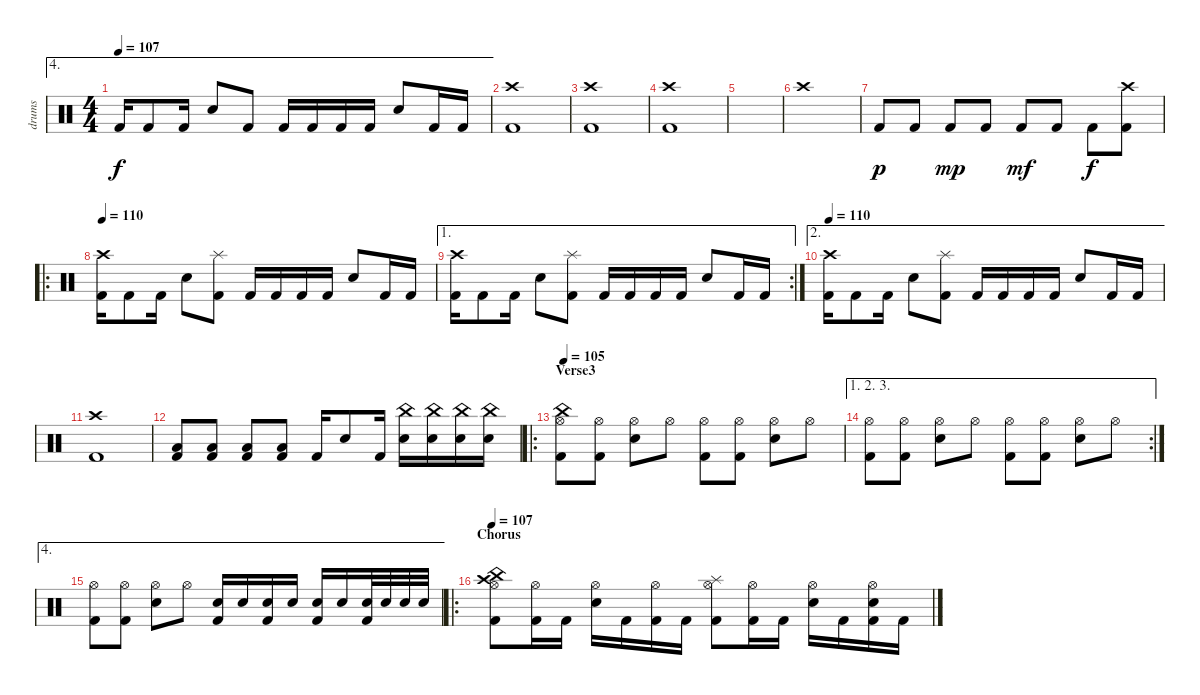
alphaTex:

\track ("drums" "drums") {instrument percussion}
\staff {score}
\articulation defaults
\ae 4
\ts (4 4)
\tempo 107
\clef neutral
\ks c "Kick (hit) 2".16{dy f} "Kick (hit) 2".8 "Kick (hit) 2".16 "Electric Snare (hit)".8 "Kick (hit) 2".8 "Kick (hit) 2".16 "Kick (hit) 2".16 "Kick (hit) 2".16 "Kick (hit) 2".16 "Electric Snare (hit)".8 "Kick (hit) 2".16 "Kick (hit) 2".16
|
("Crash high (hit)" "Kick (hit) 2").1 |
("Crash high (hit)" "Kick (hit) 2").1 |
("Crash high (hit)" "Kick (hit) 2").1 |
|
"Crash high (hit)".1 |
"Kick (hit) 2".8{dy p} "Kick (hit) 2".8 "Kick (hit) 2".8{dy mp} "Kick (hit) 2".8 "Kick (hit) 2".8{dy mf} "Kick (hit) 2".8 "Kick (hit) 2".8{dy f} ("Crash high (hit)" "Kick (hit) 2").8 |
\ro
\tempo 110
("Crash high (hit)" "Kick (hit) 2").16 "Kick (hit) 2".8 "Kick (hit) 2".16 "Electric Snare (hit)".8 ("Splash (hit)" "Kick (hit) 2").8 "Kick (hit) 2".16 "Kick (hit) 2".16 "Kick (hit) 2".16 "Kick (hit) 2".16 "Electric Snare (hit)".8 "Kick (hit) 2".16 "Kick (hit) 2".16 |
\ae 1
\rc 2
("Crash high (hit)" "Kick (hit) 2").16 "Kick (hit) 2".8 "Kick (hit) 2".16 "Electric Snare (hit)".8 ("Splash (hit)" "Kick (hit) 2").8 "Kick (hit) 2".16 "Kick (hit) 2".16 "Kick (hit) 2".16 "Kick (hit) 2".16 "Electric Snare (hit)".8 "Kick (hit) 2".16 "Kick (hit) 2".16 |
\ae 2
\tempo 110
("Crash high (hit)" "Kick (hit) 2").16 "Kick (hit) 2".8 "Kick (hit) 2".16 "Electric Snare (hit)".8 ("Splash (hit)" "Kick (hit) 2").8 "Kick (hit) 2".16 "Kick (hit) 2".16 "Kick (hit) 2".16 "Kick (hit) 2".16 "Electric Snare (hit)".8 "Kick (hit) 2".16 "Kick (hit) 2".16 |
("Crash high (hit)" "Kick (hit) 2").1 |
("Low Floor Tom (hit)" "Kick (hit) 2").8 ("Low Floor Tom (hit)" "Kick (hit) 2").8 ("Low Floor Tom (hit)" "Kick (hit) 2").8 ("Low Floor Tom (hit)" "Kick (hit) 2").8 "Kick (hit) 2".16 "Electric Snare (hit)".8 "Kick (hit) 2".16 ("China (hit)" "Electric Snare (hit)").16 ("China (hit)" "Electric Snare (hit)").16 ("China (hit)" "Electric Snare (hit)").16 ("China (hit)" "Electric Snare (hit)").16 |
\ro
\section ("" "Verse3")
\tempo 105
("China (hit)" "Hi-Hat (open)" "Kick (hit) 2").8 ("Hi-Hat (open)" "Kick (hit) 2").8 ("Hi-Hat (open)" "Electric Snare (hit)").8 "Hi-Hat (open)".8 ("Hi-Hat (open)" "Kick (hit) 2").8 ("Hi-Hat (open)" "Kick (hit) 2").8 ("Hi-Hat (open)" "Electric Snare (hit)").8 "Hi-Hat (open)".8 |
\ae (1 2 3)
\rc 2
("Hi-Hat (open)" "Kick (hit) 2").8 ("Hi-Hat (open)" "Kick (hit) 2").8 ("Hi-Hat (open)" "Electric Snare (hit)").8 "Hi-Hat (open)".8 ("Hi-Hat (open)" "Kick (hit) 2").8 ("Hi-Hat (open)" "Kick (hit) 2").8 ("Hi-Hat (open)" "Electric Snare (hit)").8 "Hi-Hat (open)".8 |
\ae 4
("Hi-Hat (open)" "Kick (hit) 2").8 ("Hi-Hat (open)" "Kick (hit) 2").8 ("Hi-Hat (open)" "Electric Snare (hit)").8 "Hi-Hat (open)".8 ("Electric Snare (hit)" "Kick (hit) 2").16 "Electric Snare (hit)".16 ("Electric Snare (hit)" "Kick (hit) 2").16 "Electric Snare (hit)".16 ("Electric Snare (hit)" "Kick (hit) 2").16 "Electric Snare (hit)".16 ("Electric Snare (hit)" "Kick (hit) 2").32 "Electric Snare (hit)".32 "Electric Snare (hit)".32 "Electric Snare (hit)".32 |
\ro
\section ("" "Chorus")
\tempo 107
("China (hit)" "Crash high (hit)" "Hi-Hat (open)" "Kick (hit) 2").8 ("Hi-Hat (open)" "Kick (hit) 2").16 "Kick (hit) 2".16 ("Hi-Hat (open)" "Electric Snare (hit)").16 "Kick (hit) 2".16 ("Hi-Hat (open)" "Kick (hit) 2").16 "Kick (hit) 2".16 ("Splash (hit)" "Hi-Hat (open)" "Kick (hit) 2").8 ("Hi-Hat (open)" "Kick (hit) 2").16 "Kick (hit) 2".16 ("Hi-Hat (open)" "Electric Snare (hit)").16 "Kick (hit) 2".16 ("Hi-Hat (open)" "Electric Snare (hit)" "Kick (hit) 2").16 "Kick (hit) 2".16
